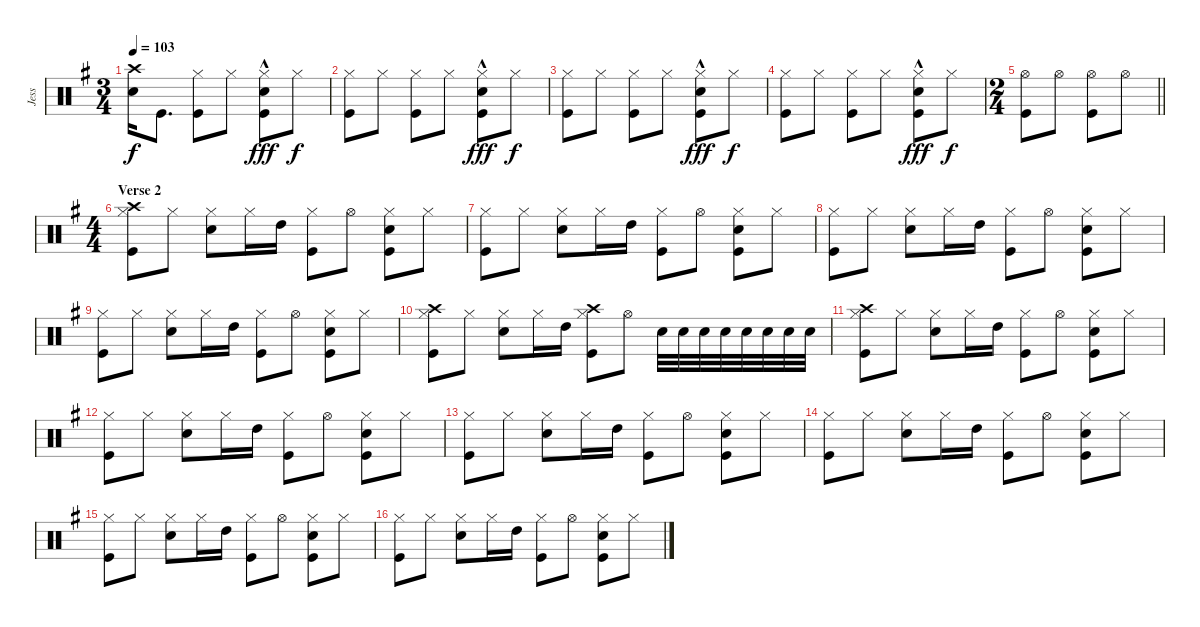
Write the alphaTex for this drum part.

\track ("Jess" "Jess") {instrument percussion}
\staff {score}
\articulation defaults
\ts (3 4)
\tempo 103
\clef neutral
\ks g
("Crash high (hit)" "Snare (hit) 2").16{dy f} "Kick (hit)".8{d} ("Hi-Hat (closed)" "Kick (hit)").8 "Hi-Hat (closed)".8 ("Hi-Hat (closed)"{hac} "Snare (hit) 2"{hac} "Kick (hit)"{hac}).8{dy fff} "Hi-Hat (closed)".8{dy f} |
("Hi-Hat (closed)" "Kick (hit)").8 "Hi-Hat (closed)".8 ("Hi-Hat (closed)" "Kick (hit)").8 "Hi-Hat (closed)".8 ("Hi-Hat (closed)"{hac} "Snare (hit) 2"{hac} "Kick (hit)"{hac}).8{dy fff} "Hi-Hat (closed)".8{dy f} |
("Hi-Hat (closed)" "Kick (hit)").8 "Hi-Hat (closed)".8 ("Hi-Hat (closed)" "Kick (hit)").8 "Hi-Hat (closed)".8 ("Hi-Hat (closed)"{hac} "Snare (hit) 2"{hac} "Kick (hit)"{hac}).8{dy fff} "Hi-Hat (closed)".8{dy f} |
("Hi-Hat (closed)" "Kick (hit)").8 "Hi-Hat (closed)".8 ("Hi-Hat (closed)" "Kick (hit)").8 "Hi-Hat (closed)".8 ("Hi-Hat (closed)"{hac} "Snare (hit) 2"{hac} "Kick (hit)"{hac}).8{dy fff} "Hi-Hat (closed)".8{dy f} |
\ts (2 4)
\barLineRight lightlight
("Hi-Hat (open)" "Kick (hit)").8 "Hi-Hat (open)".8 ("Hi-Hat (open)" "Kick (hit)").8 "Hi-Hat (open)".8 |
\ts (4 4)
\section ("" "Verse 2")
("Crash high (hit)" "Hi-Hat (closed)" "Kick (hit)").8 "Hi-Hat (closed)".8 ("Hi-Hat (closed)" "Snare (hit) 2").8 "Hi-Hat (closed)".16 "High Tom (hit)".16 ("Hi-Hat (closed)" "Kick (hit)").8 "Hi-Hat (open)".8 ("Hi-Hat (closed)" "Snare (hit) 2" "Kick (hit)").8 "Hi-Hat (closed)".8 |
("Hi-Hat (closed)" "Kick (hit)").8 "Hi-Hat (closed)".8 ("Hi-Hat (closed)" "Snare (hit) 2").8 "Hi-Hat (closed)".16 "High Tom (hit)".16 ("Hi-Hat (closed)" "Kick (hit)").8 "Hi-Hat (open)".8 ("Hi-Hat (closed)" "Snare (hit) 2" "Kick (hit)").8 "Hi-Hat (closed)".8 |
("Hi-Hat (closed)" "Kick (hit)").8 "Hi-Hat (closed)".8 ("Hi-Hat (closed)" "Snare (hit) 2").8 "Hi-Hat (closed)".16 "High Tom (hit)".16 ("Hi-Hat (closed)" "Kick (hit)").8 "Hi-Hat (open)".8 ("Hi-Hat (closed)" "Snare (hit) 2" "Kick (hit)").8 "Hi-Hat (closed)".8 |
("Hi-Hat (closed)" "Kick (hit)").8 "Hi-Hat (closed)".8 ("Hi-Hat (closed)" "Snare (hit) 2").8 "Hi-Hat (closed)".16 "High Tom (hit)".16 ("Hi-Hat (closed)" "Kick (hit)").8 "Hi-Hat (open)".8 ("Hi-Hat (closed)" "Snare (hit) 2" "Kick (hit)").8 "Hi-Hat (closed)".8 |
("Crash high (hit)" "Hi-Hat (closed)" "Kick (hit)").8 "Hi-Hat (closed)".8 ("Hi-Hat (closed)" "Snare (hit) 2").8 "Hi-Hat (closed)".16 "High Tom (hit)".16 ("Crash high (hit)" "Hi-Hat (closed)" "Kick (hit)").8 "Hi-Hat (open)".8 "Snare (hit) 2".32 "Snare (hit) 2".32 "Snare (hit) 2".32 "Snare (hit) 2".32 "Snare (hit) 2".32 "Snare (hit) 2".32 "Snare (hit) 2".32 "Snare (hit) 2".32 |
("Crash high (hit)" "Hi-Hat (closed)" "Kick (hit)").8 "Hi-Hat (closed)".8 ("Hi-Hat (closed)" "Snare (hit) 2").8 "Hi-Hat (closed)".16 "High Tom (hit)".16 ("Hi-Hat (closed)" "Kick (hit)").8 "Hi-Hat (open)".8 ("Hi-Hat (closed)" "Snare (hit) 2" "Kick (hit)").8 "Hi-Hat (closed)".8 |
("Hi-Hat (closed)" "Kick (hit)").8 "Hi-Hat (closed)".8 ("Hi-Hat (closed)" "Snare (hit) 2").8 "Hi-Hat (closed)".16 "High Tom (hit)".16 ("Hi-Hat (closed)" "Kick (hit)").8 "Hi-Hat (open)".8 ("Hi-Hat (closed)" "Snare (hit) 2" "Kick (hit)").8 "Hi-Hat (closed)".8 |
("Hi-Hat (closed)" "Kick (hit)").8 "Hi-Hat (closed)".8 ("Hi-Hat (closed)" "Snare (hit) 2").8 "Hi-Hat (closed)".16 "High Tom (hit)".16 ("Hi-Hat (closed)" "Kick (hit)").8 "Hi-Hat (open)".8 ("Hi-Hat (closed)" "Snare (hit) 2" "Kick (hit)").8 "Hi-Hat (closed)".8 |
("Hi-Hat (closed)" "Kick (hit)").8 "Hi-Hat (closed)".8 ("Hi-Hat (closed)" "Snare (hit) 2").8 "Hi-Hat (closed)".16 "High Tom (hit)".16 ("Hi-Hat (closed)" "Kick (hit)").8 "Hi-Hat (open)".8 ("Hi-Hat (closed)" "Snare (hit) 2" "Kick (hit)").8 "Hi-Hat (closed)".8 |
("Hi-Hat (closed)" "Kick (hit)").8 "Hi-Hat (closed)".8 ("Hi-Hat (closed)" "Snare (hit) 2").8 "Hi-Hat (closed)".16 "High Tom (hit)".16 ("Hi-Hat (closed)" "Kick (hit)").8 "Hi-Hat (open)".8 ("Hi-Hat (closed)" "Snare (hit) 2" "Kick (hit)").8 "Hi-Hat (closed)".8 |
("Hi-Hat (closed)" "Kick (hit)").8 "Hi-Hat (closed)".8 ("Hi-Hat (closed)" "Snare (hit) 2").8 "Hi-Hat (closed)".16 "High Tom (hit)".16 ("Hi-Hat (closed)" "Kick (hit)").8 "Hi-Hat (open)".8 ("Hi-Hat (closed)" "Snare (hit) 2" "Kick (hit)").8 "Hi-Hat (closed)".8
